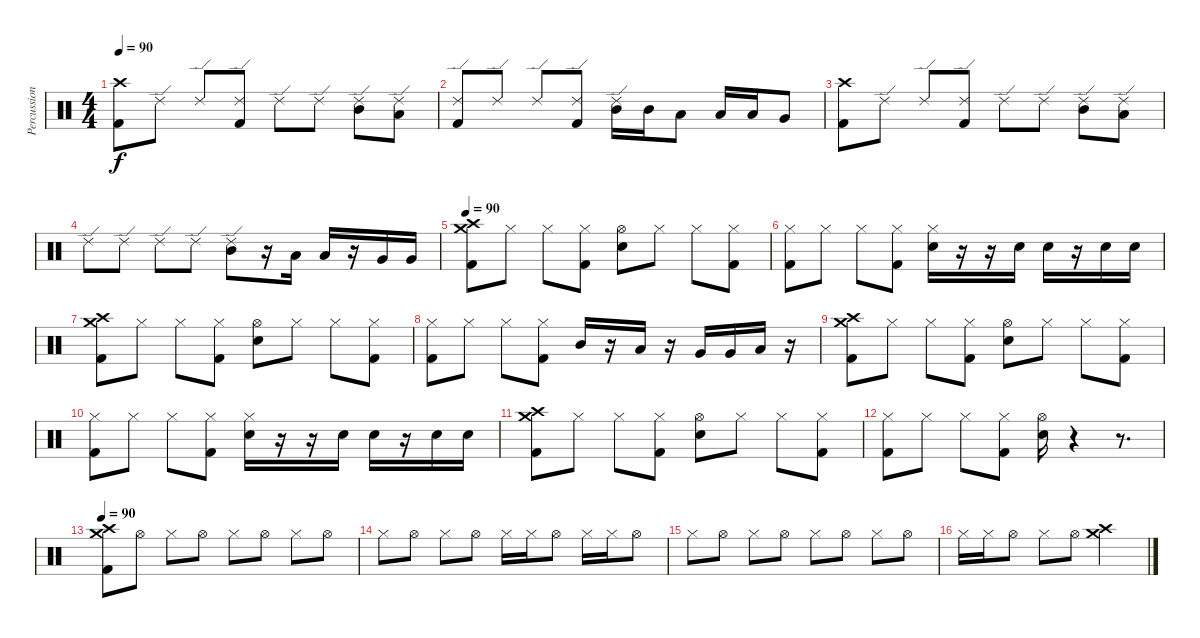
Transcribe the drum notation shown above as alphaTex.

\track ("Percussion" "Percussion") {instrument percussion}
\staff {score}
\articulation defaults
\ts (4 4)
\tempo 90
\clef neutral
\ks c
("Crash high (hit)" "Kick (hit) 2").8{dy f} "Ride (edge) 2".8 "Ride (edge) 2".8 ("Ride (edge) 2" "Kick (hit) 2").8 "Ride (edge) 2".8 "Ride (edge) 2".8 ("Ride (edge) 2" "Mid Tom (hit)").8 ("Ride (edge) 2" "Low Tom (hit)").8 |
("Ride (edge) 2" "Kick (hit) 2").8 "Ride (edge) 2".8 "Ride (edge) 2".8 ("Ride (edge) 2" "Kick (hit) 2").8 ("Ride (edge) 2" "Mid Tom (hit)").16 "Mid Tom (hit)".16 "Low Tom (hit)".8 "Low Tom (hit)".16 "Low Tom (hit)".16 "Very Low Tom (hit)".8 |
("Crash high (hit)" "Kick (hit) 2").8 "Ride (edge) 2".8 "Ride (edge) 2".8 ("Ride (edge) 2" "Kick (hit) 2").8 "Ride (edge) 2".8 "Ride (edge) 2".8 ("Ride (edge) 2" "Mid Tom (hit)").8 ("Ride (edge) 2" "Low Tom (hit)").8 |
"Ride (edge) 2".8 "Ride (edge) 2".8 "Ride (edge) 2".8 "Ride (edge) 2".8 ("Ride (edge) 2" "Mid Tom (hit)").8 r.16 "Low Tom (hit)".16 "Low Tom (hit)".16 r.16 "Very Low Tom (hit)".16 "Very Low Tom (hit)".16 |
\tempo 90
("Crash high (hit)" "Crash medium (hit)" "Kick (hit) 2").8 "Hi-Hat (closed)".8 "Hi-Hat (closed)".8 ("Hi-Hat (closed)" "Kick (hit) 2").8 ("Hi-Hat (open)" "Snare (hit) 2").8 "Hi-Hat (closed)".8 "Hi-Hat (closed)".8 ("Hi-Hat (closed)" "Kick (hit) 2").8 |
("Hi-Hat (closed)" "Kick (hit) 2").8 "Hi-Hat (closed)".8 "Hi-Hat (closed)".8 ("Hi-Hat (closed)" "Kick (hit) 2").8 ("Hi-Hat (closed)" "Snare (hit) 2").16 r.16 r.16 "Snare (hit) 2".16 "Snare (hit) 2".16 r.16 "Snare (hit) 2".16 "Snare (hit) 2".16 |
("Crash high (hit)" "Crash medium (hit)" "Kick (hit) 2").8 "Hi-Hat (closed)".8 "Hi-Hat (closed)".8 ("Hi-Hat (closed)" "Kick (hit) 2").8 ("Hi-Hat (open)" "Snare (hit) 2").8 "Hi-Hat (closed)".8 "Hi-Hat (closed)".8 ("Hi-Hat (closed)" "Kick (hit) 2").8 |
("Hi-Hat (closed)" "Kick (hit) 2").8 "Hi-Hat (closed)".8 "Hi-Hat (closed)".8 ("Hi-Hat (closed)" "Kick (hit) 2").8 "Mid Tom (hit)".16 r.16 "Low Tom (hit)".16 r.16 "Very Low Tom (hit)".16 "Very Low Tom (hit)".16 "Low Floor Tom (hit)".16 r.16 |
("Crash high (hit)" "Crash medium (hit)" "Kick (hit) 2").8 "Hi-Hat (closed)".8 "Hi-Hat (closed)".8 ("Hi-Hat (closed)" "Kick (hit) 2").8 ("Hi-Hat (open)" "Snare (hit) 2").8 "Hi-Hat (closed)".8 "Hi-Hat (closed)".8 ("Hi-Hat (closed)" "Kick (hit) 2").8 |
("Hi-Hat (closed)" "Kick (hit) 2").8 "Hi-Hat (closed)".8 "Hi-Hat (closed)".8 ("Hi-Hat (closed)" "Kick (hit) 2").8 ("Hi-Hat (closed)" "Snare (hit) 2").16 r.16 r.16 "Snare (hit) 2".16 "Snare (hit) 2".16 r.16 "Snare (hit) 2".16 "Snare (hit) 2".16 |
("Crash high (hit)" "Crash medium (hit)" "Kick (hit) 2").8 "Hi-Hat (closed)".8 "Hi-Hat (closed)".8 ("Hi-Hat (closed)" "Kick (hit) 2").8 ("Hi-Hat (open)" "Snare (hit) 2").8 "Hi-Hat (closed)".8 "Hi-Hat (closed)".8 ("Hi-Hat (closed)" "Kick (hit) 2").8 |
("Hi-Hat (closed)" "Kick (hit) 2").8 "Hi-Hat (closed)".8 "Hi-Hat (closed)".8 ("Hi-Hat (closed)" "Kick (hit) 2").8 ("Hi-Hat (open)" "Snare (hit) 2").16 r.4 r.8{d} |
\tempo 90
("Crash high (hit)" "Crash medium (hit)" "Kick (hit) 2").8 "Hi-Hat (open)".8 "Hi-Hat (closed)".8 "Hi-Hat (open)".8 "Hi-Hat (closed)".8 "Hi-Hat (open)".8 "Hi-Hat (closed)".8 "Hi-Hat (open)".8 |
"Hi-Hat (closed)".8 "Hi-Hat (open)".8 "Hi-Hat (closed)".8 "Hi-Hat (open)".8 "Hi-Hat (closed)".16 "Hi-Hat (closed)".16 "Hi-Hat (open)".8 "Hi-Hat (closed)".16 "Hi-Hat (closed)".16 "Hi-Hat (open)".8 |
"Hi-Hat (closed)".8 "Hi-Hat (open)".8 "Hi-Hat (closed)".8 "Hi-Hat (open)".8 "Hi-Hat (closed)".8 "Hi-Hat (open)".8 "Hi-Hat (closed)".8 "Hi-Hat (open)".8 |
"Hi-Hat (closed)".16 "Hi-Hat (closed)".16 "Hi-Hat (open)".8 "Hi-Hat (closed)".8 "Hi-Hat (open)".8 ("Crash medium (hit)"{tr (57 64)} "Crash high (hit)"{tr (49 64)}).2
